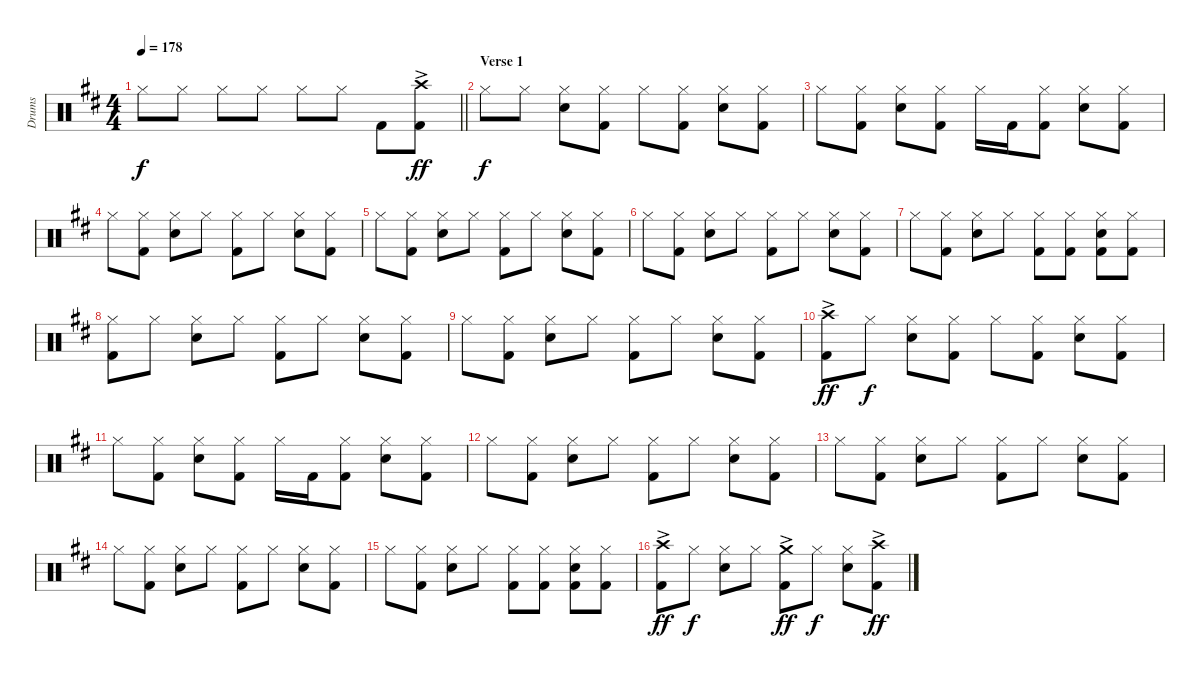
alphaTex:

\track ("Drums" "Drums") {instrument percussion}
\staff {score}
\articulation defaults
\ts (4 4)
\tempo 178
\clef neutral
\barLineRight lightlight
\ks d "Hi-Hat (closed)".8{dy f} "Hi-Hat (closed)".8 "Hi-Hat (closed)".8 "Hi-Hat (closed)".8 "Hi-Hat (closed)".8 "Hi-Hat (closed)".8 "Kick (hit) 2".8
("Crash high (hit)"{ac} "Kick (hit) 2").8{dy ff} |
\section ("" "Verse 1")
"Hi-Hat (closed)".8{dy f} "Hi-Hat (closed)".8 ("Hi-Hat (closed)" "Electric Snare (hit)").8 ("Hi-Hat (closed)" "Kick (hit) 2").8 "Hi-Hat (closed)".8 ("Hi-Hat (closed)" "Kick (hit) 2").8 ("Hi-Hat (closed)" "Electric Snare (hit)").8 ("Hi-Hat (closed)" "Kick (hit) 2").8 |
"Hi-Hat (closed)".8 ("Hi-Hat (closed)" "Kick (hit) 2").8 ("Hi-Hat (closed)" "Electric Snare (hit)").8 ("Hi-Hat (closed)" "Kick (hit) 2").8 "Hi-Hat (closed)".16 "Kick (hit) 2".16 ("Hi-Hat (closed)" "Kick (hit) 2").8 ("Hi-Hat (closed)" "Electric Snare (hit)").8 ("Hi-Hat (closed)" "Kick (hit) 2").8 |
"Hi-Hat (closed)".8 ("Hi-Hat (closed)" "Kick (hit) 2").8 ("Hi-Hat (closed)" "Electric Snare (hit)").8 "Hi-Hat (closed)".8 ("Hi-Hat (closed)" "Kick (hit) 2").8 "Hi-Hat (closed)".8 ("Hi-Hat (closed)" "Electric Snare (hit)").8 ("Hi-Hat (closed)" "Kick (hit) 2").8 |
"Hi-Hat (closed)".8 ("Hi-Hat (closed)" "Kick (hit) 2").8 ("Hi-Hat (closed)" "Electric Snare (hit)").8 "Hi-Hat (closed)".8 ("Hi-Hat (closed)" "Kick (hit) 2").8 "Hi-Hat (closed)".8 ("Hi-Hat (closed)" "Electric Snare (hit)").8 ("Hi-Hat (closed)" "Kick (hit) 2").8 |
"Hi-Hat (closed)".8 ("Hi-Hat (closed)" "Kick (hit) 2").8 ("Hi-Hat (closed)" "Electric Snare (hit)").8 "Hi-Hat (closed)".8 ("Hi-Hat (closed)" "Kick (hit) 2").8 "Hi-Hat (closed)".8 ("Hi-Hat (closed)" "Electric Snare (hit)").8 ("Hi-Hat (closed)" "Kick (hit) 2").8 |
"Hi-Hat (closed)".8 ("Hi-Hat (closed)" "Kick (hit) 2").8 ("Hi-Hat (closed)" "Electric Snare (hit)").8 "Hi-Hat (closed)".8 ("Hi-Hat (closed)" "Kick (hit) 2").8 ("Hi-Hat (closed)" "Kick (hit) 2").8 ("Hi-Hat (closed)" "Electric Snare (hit)" "Kick (hit) 2").8 ("Hi-Hat (closed)" "Kick (hit) 2").8 |
("Hi-Hat (closed)" "Kick (hit) 2").8 "Hi-Hat (closed)".8 ("Hi-Hat (closed)" "Electric Snare (hit)").8 "Hi-Hat (closed)".8 ("Hi-Hat (closed)" "Kick (hit) 2").8 "Hi-Hat (closed)".8 ("Hi-Hat (closed)" "Electric Snare (hit)").8 ("Hi-Hat (closed)" "Kick (hit) 2").8 |
"Hi-Hat (closed)".8 ("Hi-Hat (closed)" "Kick (hit) 2").8 ("Hi-Hat (closed)" "Electric Snare (hit)").8 "Hi-Hat (closed)".8 ("Hi-Hat (closed)" "Kick (hit) 2").8 "Hi-Hat (closed)".8 ("Hi-Hat (closed)" "Electric Snare (hit)").8 ("Hi-Hat (closed)" "Kick (hit) 2").8 |
("Crash high (hit)"{ac} "Kick (hit) 2").8{dy ff} "Hi-Hat (closed)".8{dy f} ("Hi-Hat (closed)" "Electric Snare (hit)").8 ("Hi-Hat (closed)" "Kick (hit) 2").8 "Hi-Hat (closed)".8 ("Hi-Hat (closed)" "Kick (hit) 2").8 ("Hi-Hat (closed)" "Electric Snare (hit)").8 ("Hi-Hat (closed)" "Kick (hit) 2").8 |
"Hi-Hat (closed)".8 ("Hi-Hat (closed)" "Kick (hit) 2").8 ("Hi-Hat (closed)" "Electric Snare (hit)").8 ("Hi-Hat (closed)" "Kick (hit) 2").8 "Hi-Hat (closed)".16 "Kick (hit) 2".16 ("Hi-Hat (closed)" "Kick (hit) 2").8 ("Hi-Hat (closed)" "Electric Snare (hit)").8 ("Hi-Hat (closed)" "Kick (hit) 2").8 |
"Hi-Hat (closed)".8 ("Hi-Hat (closed)" "Kick (hit) 2").8 ("Hi-Hat (closed)" "Electric Snare (hit)").8 "Hi-Hat (closed)".8 ("Hi-Hat (closed)" "Kick (hit) 2").8 "Hi-Hat (closed)".8 ("Hi-Hat (closed)" "Electric Snare (hit)").8 ("Hi-Hat (closed)" "Kick (hit) 2").8 |
"Hi-Hat (closed)".8 ("Hi-Hat (closed)" "Kick (hit) 2").8 ("Hi-Hat (closed)" "Electric Snare (hit)").8 "Hi-Hat (closed)".8 ("Hi-Hat (closed)" "Kick (hit) 2").8 "Hi-Hat (closed)".8 ("Hi-Hat (closed)" "Electric Snare (hit)").8 ("Hi-Hat (closed)" "Kick (hit) 2").8 |
"Hi-Hat (closed)".8 ("Hi-Hat (closed)" "Kick (hit) 2").8 ("Hi-Hat (closed)" "Electric Snare (hit)").8 "Hi-Hat (closed)".8 ("Hi-Hat (closed)" "Kick (hit) 2").8 "Hi-Hat (closed)".8 ("Hi-Hat (closed)" "Electric Snare (hit)").8 ("Hi-Hat (closed)" "Kick (hit) 2").8 |
"Hi-Hat (closed)".8 ("Hi-Hat (closed)" "Kick (hit) 2").8 ("Hi-Hat (closed)" "Electric Snare (hit)").8 "Hi-Hat (closed)".8 ("Hi-Hat (closed)" "Kick (hit) 2").8 ("Hi-Hat (closed)" "Kick (hit) 2").8 ("Hi-Hat (closed)" "Electric Snare (hit)" "Kick (hit) 2").8 ("Hi-Hat (closed)" "Kick (hit) 2").8 |
("Crash high (hit)"{ac} "Kick (hit) 2").8{dy ff} "Hi-Hat (closed)".8{dy f} ("Hi-Hat (closed)" "Electric Snare (hit)").8 "Hi-Hat (closed)".8 ("Crash medium (hit)"{ac} "Kick (hit) 2").8{dy ff} "Hi-Hat (closed)".8{dy f} ("Hi-Hat (closed)" "Electric Snare (hit)").8 ("Crash high (hit)"{ac} "Kick (hit) 2").8{dy ff}
